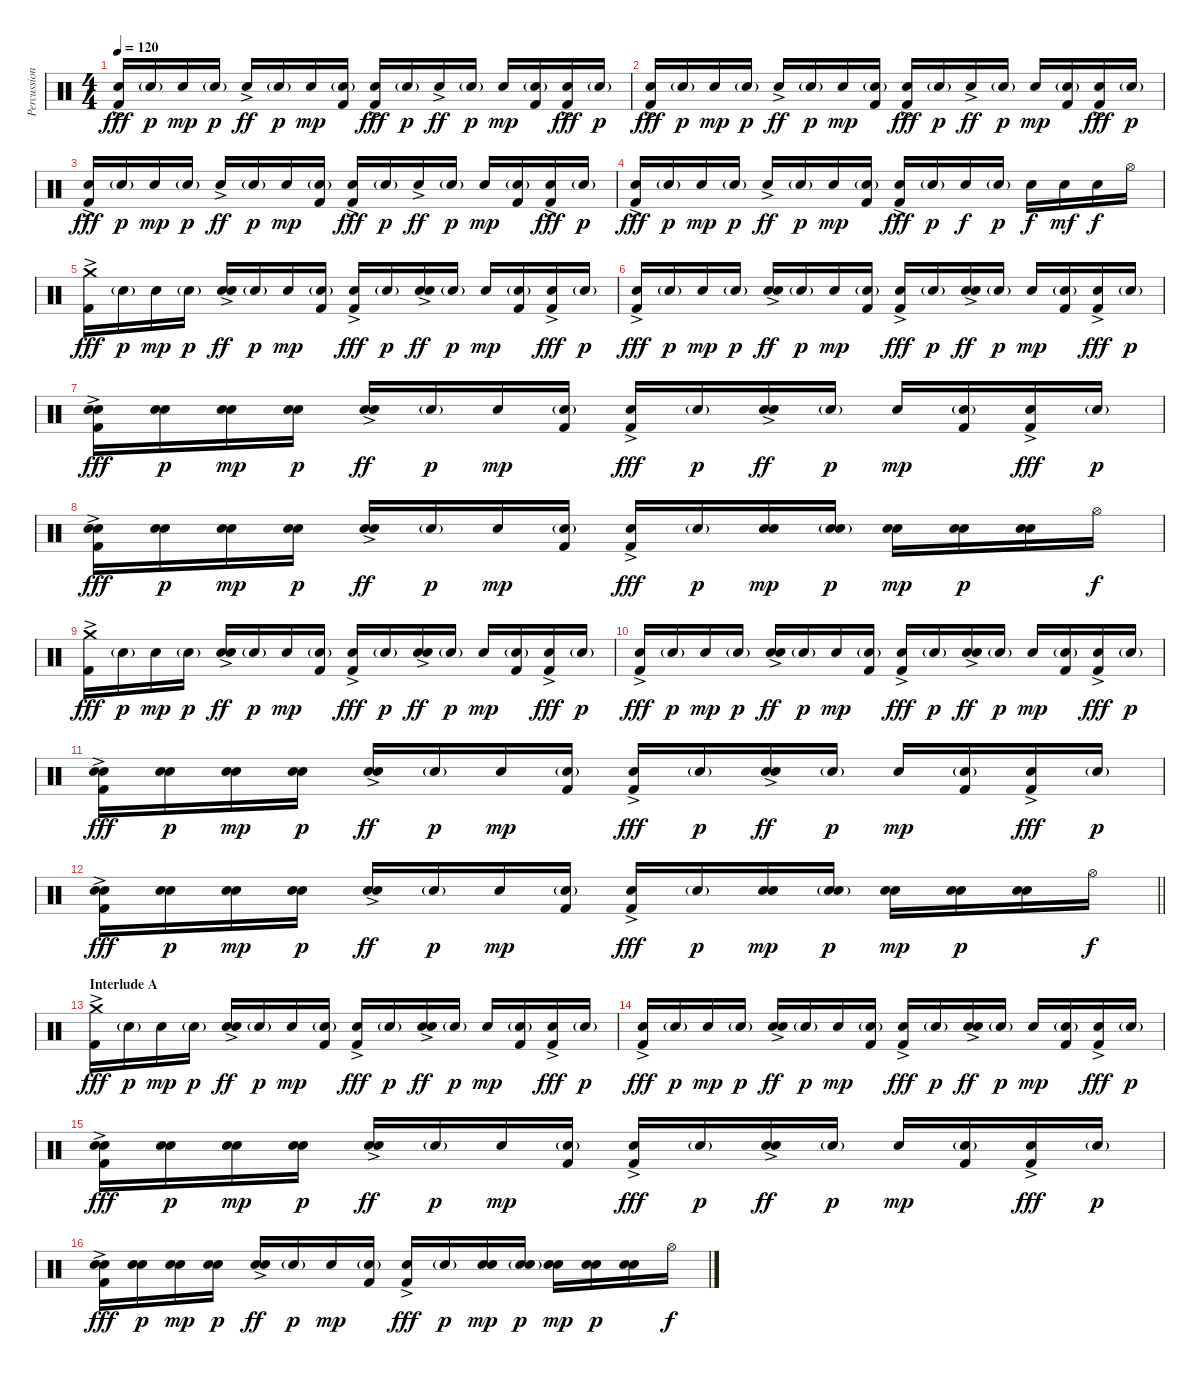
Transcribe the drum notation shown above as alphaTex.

\track ("Percussion" "Percussion") {instrument percussion}
\staff {score}
\articulation defaults
\ts (4 4)
\tempo 120
\clef neutral
\ks c
("Electric Snare (hit)" "Kick (hit) 2"{ac}).16{dy fff} "Electric Snare (hit)"{g}.16{dy p} "Electric Snare (hit)".16{dy mp} "Electric Snare (hit)"{g}.16{dy p} "Electric Snare (hit)"{ac}.16{dy ff} "Electric Snare (hit)"{g}.16{dy p} "Electric Snare (hit)".16{dy mp} ("Electric Snare (hit)"{g} "Kick (hit) 2").16 ("Electric Snare (hit)" "Kick (hit) 2"{ac}).16{dy fff} "Electric Snare (hit)"{g}.16{dy p} "Electric Snare (hit)"{ac}.16{dy ff} "Electric Snare (hit)"{g}.16{dy p} "Electric Snare (hit)".16{dy mp} ("Electric Snare (hit)"{g} "Kick (hit) 2").16 ("Electric Snare (hit)" "Kick (hit) 2"{ac}).16{dy fff} "Electric Snare (hit)"{g}.16{dy p} |
("Electric Snare (hit)" "Kick (hit) 2"{ac}).16{dy fff} "Electric Snare (hit)"{g}.16{dy p} "Electric Snare (hit)".16{dy mp} "Electric Snare (hit)"{g}.16{dy p} "Electric Snare (hit)"{ac}.16{dy ff} "Electric Snare (hit)"{g}.16{dy p} "Electric Snare (hit)".16{dy mp} ("Electric Snare (hit)"{g} "Kick (hit) 2").16 ("Electric Snare (hit)" "Kick (hit) 2"{ac}).16{dy fff} "Electric Snare (hit)"{g}.16{dy p} "Electric Snare (hit)"{ac}.16{dy ff} "Electric Snare (hit)"{g}.16{dy p} "Electric Snare (hit)".16{dy mp} ("Electric Snare (hit)"{g} "Kick (hit) 2").16 ("Electric Snare (hit)" "Kick (hit) 2"{ac}).16{dy fff} "Electric Snare (hit)"{g}.16{dy p} |
("Electric Snare (hit)" "Kick (hit) 2"{ac}).16{dy fff} "Electric Snare (hit)"{g}.16{dy p} "Electric Snare (hit)".16{dy mp} "Electric Snare (hit)"{g}.16{dy p} "Electric Snare (hit)"{ac}.16{dy ff} "Electric Snare (hit)"{g}.16{dy p} "Electric Snare (hit)".16{dy mp} ("Electric Snare (hit)"{g} "Kick (hit) 2").16 ("Electric Snare (hit)" "Kick (hit) 2"{ac}).16{dy fff} "Electric Snare (hit)"{g}.16{dy p} "Electric Snare (hit)"{ac}.16{dy ff} "Electric Snare (hit)"{g}.16{dy p} "Electric Snare (hit)".16{dy mp} ("Electric Snare (hit)"{g} "Kick (hit) 2").16 ("Electric Snare (hit)" "Kick (hit) 2"{ac}).16{dy fff} "Electric Snare (hit)"{g}.16{dy p} |
("Electric Snare (hit)" "Kick (hit) 2"{ac}).16{dy fff} "Electric Snare (hit)"{g}.16{dy p} "Electric Snare (hit)".16{dy mp} "Electric Snare (hit)"{g}.16{dy p} "Electric Snare (hit)"{ac}.16{dy ff} "Electric Snare (hit)"{g}.16{dy p} "Electric Snare (hit)".16{dy mp} ("Electric Snare (hit)"{g} "Kick (hit) 2").16 ("Electric Snare (hit)" "Kick (hit) 2"{ac}).16{dy fff} "Electric Snare (hit)"{g}.16{dy p} "Electric Snare (hit)".16{dy f} "Electric Snare (hit)"{g}.16{dy p} "Electric Snare (hit)".16{dy f} "Electric Snare (hit)".16{dy mf} "Electric Snare (hit)".16{dy f} "Hi-Hat (open)".16 |
("Crash medium (hit)" "Kick (hit) 2"{ac}).16{dy fff} "Electric Snare (hit)"{g}.16{dy p} "Electric Snare (hit)".16{dy mp} "Electric Snare (hit)"{g}.16{dy p} ("Electric Snare (hit)"{ac} "Snare (hit) 2").16{dy ff} "Electric Snare (hit)"{g}.16{dy p} "Electric Snare (hit)".16{dy mp} ("Electric Snare (hit)"{g} "Kick (hit) 2").16 ("Electric Snare (hit)" "Kick (hit) 2"{ac}).16{dy fff} "Electric Snare (hit)"{g}.16{dy p} ("Electric Snare (hit)"{ac} "Snare (hit) 2").16{dy ff} "Electric Snare (hit)"{g}.16{dy p} "Electric Snare (hit)".16{dy mp} ("Electric Snare (hit)"{g} "Kick (hit) 2").16 ("Electric Snare (hit)" "Kick (hit) 2"{ac}).16{dy fff} "Electric Snare (hit)"{g}.16{dy p} |
("Electric Snare (hit)" "Kick (hit) 2"{ac}).16{dy fff} "Electric Snare (hit)"{g}.16{dy p} "Electric Snare (hit)".16{dy mp} "Electric Snare (hit)"{g}.16{dy p} ("Electric Snare (hit)"{ac} "Snare (hit) 2").16{dy ff} "Electric Snare (hit)"{g}.16{dy p} "Electric Snare (hit)".16{dy mp} ("Electric Snare (hit)"{g} "Kick (hit) 2").16 ("Electric Snare (hit)" "Kick (hit) 2"{ac}).16{dy fff} "Electric Snare (hit)"{g}.16{dy p} ("Electric Snare (hit)"{ac} "Snare (hit) 2").16{dy ff} "Electric Snare (hit)"{g}.16{dy p} "Electric Snare (hit)".16{dy mp} ("Electric Snare (hit)"{g} "Kick (hit) 2").16 ("Electric Snare (hit)" "Kick (hit) 2"{ac}).16{dy fff} "Electric Snare (hit)"{g}.16{dy p} |
("Electric Snare (hit)" "Snare (hit) 2" "Kick (hit) 2"{ac}).16{dy fff} ("Electric Snare (hit)" "Snare (hit) 2").16{dy p} ("Electric Snare (hit)" "Snare (hit) 2").16{dy mp} ("Electric Snare (hit)" "Snare (hit) 2").16{dy p} ("Electric Snare (hit)"{ac} "Snare (hit) 2").16{dy ff} "Electric Snare (hit)"{g}.16{dy p} "Electric Snare (hit)".16{dy mp} ("Electric Snare (hit)"{g} "Kick (hit) 2").16 ("Electric Snare (hit)" "Kick (hit) 2"{ac}).16{dy fff} "Electric Snare (hit)"{g}.16{dy p} ("Electric Snare (hit)"{ac} "Snare (hit) 2").16{dy ff} "Electric Snare (hit)"{g}.16{dy p} "Electric Snare (hit)".16{dy mp} ("Electric Snare (hit)"{g} "Kick (hit) 2").16 ("Electric Snare (hit)" "Kick (hit) 2"{ac}).16{dy fff} "Electric Snare (hit)"{g}.16{dy p} |
("Electric Snare (hit)" "Snare (hit) 2" "Kick (hit) 2"{ac}).16{dy fff} ("Electric Snare (hit)" "Snare (hit) 2").16{dy p} ("Electric Snare (hit)" "Snare (hit) 2").16{dy mp} ("Electric Snare (hit)" "Snare (hit) 2").16{dy p} ("Electric Snare (hit)"{ac} "Snare (hit) 2").16{dy ff} "Electric Snare (hit)"{g}.16{dy p} "Electric Snare (hit)".16{dy mp} ("Electric Snare (hit)"{g} "Kick (hit) 2").16 ("Electric Snare (hit)" "Kick (hit) 2"{ac}).16{dy fff} "Electric Snare (hit)"{g}.16{dy p} ("Electric Snare (hit)" "Snare (hit) 2").16{dy mp} ("Electric Snare (hit)"{g} "Snare (hit) 2").16{dy p} ("Electric Snare (hit)" "Snare (hit) 2").16{dy mp} ("Electric Snare (hit)" "Snare (hit) 2").16{dy p} ("Electric Snare (hit)" "Snare (hit) 2").16 "Hi-Hat (open)".16{dy f} |
("Crash medium (hit)" "Kick (hit) 2"{ac}).16{dy fff} "Electric Snare (hit)"{g}.16{dy p} "Electric Snare (hit)".16{dy mp} "Electric Snare (hit)"{g}.16{dy p} ("Electric Snare (hit)"{ac} "Snare (hit) 2").16{dy ff} "Electric Snare (hit)"{g}.16{dy p} "Electric Snare (hit)".16{dy mp} ("Electric Snare (hit)"{g} "Kick (hit) 2").16 ("Electric Snare (hit)" "Kick (hit) 2"{ac}).16{dy fff} "Electric Snare (hit)"{g}.16{dy p} ("Electric Snare (hit)"{ac} "Snare (hit) 2").16{dy ff} "Electric Snare (hit)"{g}.16{dy p} "Electric Snare (hit)".16{dy mp} ("Electric Snare (hit)"{g} "Kick (hit) 2").16 ("Electric Snare (hit)" "Kick (hit) 2"{ac}).16{dy fff} "Electric Snare (hit)"{g}.16{dy p} |
("Electric Snare (hit)" "Kick (hit) 2"{ac}).16{dy fff} "Electric Snare (hit)"{g}.16{dy p} "Electric Snare (hit)".16{dy mp} "Electric Snare (hit)"{g}.16{dy p} ("Electric Snare (hit)"{ac} "Snare (hit) 2").16{dy ff} "Electric Snare (hit)"{g}.16{dy p} "Electric Snare (hit)".16{dy mp} ("Electric Snare (hit)"{g} "Kick (hit) 2").16 ("Electric Snare (hit)" "Kick (hit) 2"{ac}).16{dy fff} "Electric Snare (hit)"{g}.16{dy p} ("Electric Snare (hit)"{ac} "Snare (hit) 2").16{dy ff} "Electric Snare (hit)"{g}.16{dy p} "Electric Snare (hit)".16{dy mp} ("Electric Snare (hit)"{g} "Kick (hit) 2").16 ("Electric Snare (hit)" "Kick (hit) 2"{ac}).16{dy fff} "Electric Snare (hit)"{g}.16{dy p} |
("Electric Snare (hit)" "Snare (hit) 2" "Kick (hit) 2"{ac}).16{dy fff} ("Electric Snare (hit)" "Snare (hit) 2").16{dy p} ("Electric Snare (hit)" "Snare (hit) 2").16{dy mp} ("Electric Snare (hit)" "Snare (hit) 2").16{dy p} ("Electric Snare (hit)"{ac} "Snare (hit) 2").16{dy ff} "Electric Snare (hit)"{g}.16{dy p} "Electric Snare (hit)".16{dy mp} ("Electric Snare (hit)"{g} "Kick (hit) 2").16 ("Electric Snare (hit)" "Kick (hit) 2"{ac}).16{dy fff} "Electric Snare (hit)"{g}.16{dy p} ("Electric Snare (hit)"{ac} "Snare (hit) 2").16{dy ff} "Electric Snare (hit)"{g}.16{dy p} "Electric Snare (hit)".16{dy mp} ("Electric Snare (hit)"{g} "Kick (hit) 2").16 ("Electric Snare (hit)" "Kick (hit) 2"{ac}).16{dy fff} "Electric Snare (hit)"{g}.16{dy p} |
\barLineRight lightlight
("Electric Snare (hit)" "Snare (hit) 2" "Kick (hit) 2"{ac}).16{dy fff} ("Electric Snare (hit)" "Snare (hit) 2").16{dy p} ("Electric Snare (hit)" "Snare (hit) 2").16{dy mp} ("Electric Snare (hit)" "Snare (hit) 2").16{dy p} ("Electric Snare (hit)"{ac} "Snare (hit) 2").16{dy ff} "Electric Snare (hit)"{g}.16{dy p} "Electric Snare (hit)".16{dy mp} ("Electric Snare (hit)"{g} "Kick (hit) 2").16 ("Electric Snare (hit)" "Kick (hit) 2"{ac}).16{dy fff} "Electric Snare (hit)"{g}.16{dy p} ("Electric Snare (hit)" "Snare (hit) 2").16{dy mp} ("Electric Snare (hit)"{g} "Snare (hit) 2").16{dy p} ("Electric Snare (hit)" "Snare (hit) 2").16{dy mp} ("Electric Snare (hit)" "Snare (hit) 2").16{dy p} ("Electric Snare (hit)" "Snare (hit) 2").16 "Hi-Hat (open)".16{dy f} |
\section ("" "Interlude A")
("Crash medium (hit)" "Kick (hit) 2"{ac}).16{dy fff} "Electric Snare (hit)"{g}.16{dy p} "Electric Snare (hit)".16{dy mp} "Electric Snare (hit)"{g}.16{dy p} ("Electric Snare (hit)"{ac} "Snare (hit) 2").16{dy ff} "Electric Snare (hit)"{g}.16{dy p} "Electric Snare (hit)".16{dy mp} ("Electric Snare (hit)"{g} "Kick (hit) 2").16 ("Electric Snare (hit)" "Kick (hit) 2"{ac}).16{dy fff} "Electric Snare (hit)"{g}.16{dy p} ("Electric Snare (hit)"{ac} "Snare (hit) 2").16{dy ff} "Electric Snare (hit)"{g}.16{dy p} "Electric Snare (hit)".16{dy mp} ("Electric Snare (hit)"{g} "Kick (hit) 2").16 ("Electric Snare (hit)" "Kick (hit) 2"{ac}).16{dy fff} "Electric Snare (hit)"{g}.16{dy p} |
("Electric Snare (hit)" "Kick (hit) 2"{ac}).16{dy fff} "Electric Snare (hit)"{g}.16{dy p} "Electric Snare (hit)".16{dy mp} "Electric Snare (hit)"{g}.16{dy p} ("Electric Snare (hit)"{ac} "Snare (hit) 2").16{dy ff} "Electric Snare (hit)"{g}.16{dy p} "Electric Snare (hit)".16{dy mp} ("Electric Snare (hit)"{g} "Kick (hit) 2").16 ("Electric Snare (hit)" "Kick (hit) 2"{ac}).16{dy fff} "Electric Snare (hit)"{g}.16{dy p} ("Electric Snare (hit)"{ac} "Snare (hit) 2").16{dy ff} "Electric Snare (hit)"{g}.16{dy p} "Electric Snare (hit)".16{dy mp} ("Electric Snare (hit)"{g} "Kick (hit) 2").16 ("Electric Snare (hit)" "Kick (hit) 2"{ac}).16{dy fff} "Electric Snare (hit)"{g}.16{dy p} |
("Electric Snare (hit)" "Snare (hit) 2" "Kick (hit) 2"{ac}).16{dy fff} ("Electric Snare (hit)" "Snare (hit) 2").16{dy p} ("Electric Snare (hit)" "Snare (hit) 2").16{dy mp} ("Electric Snare (hit)" "Snare (hit) 2").16{dy p} ("Electric Snare (hit)"{ac} "Snare (hit) 2").16{dy ff} "Electric Snare (hit)"{g}.16{dy p} "Electric Snare (hit)".16{dy mp} ("Electric Snare (hit)"{g} "Kick (hit) 2").16 ("Electric Snare (hit)" "Kick (hit) 2"{ac}).16{dy fff} "Electric Snare (hit)"{g}.16{dy p} ("Electric Snare (hit)"{ac} "Snare (hit) 2").16{dy ff} "Electric Snare (hit)"{g}.16{dy p} "Electric Snare (hit)".16{dy mp} ("Electric Snare (hit)"{g} "Kick (hit) 2").16 ("Electric Snare (hit)" "Kick (hit) 2"{ac}).16{dy fff} "Electric Snare (hit)"{g}.16{dy p} |
("Electric Snare (hit)" "Snare (hit) 2" "Kick (hit) 2"{ac}).16{dy fff} ("Electric Snare (hit)" "Snare (hit) 2").16{dy p} ("Electric Snare (hit)" "Snare (hit) 2").16{dy mp} ("Electric Snare (hit)" "Snare (hit) 2").16{dy p} ("Electric Snare (hit)"{ac} "Snare (hit) 2").16{dy ff} "Electric Snare (hit)"{g}.16{dy p} "Electric Snare (hit)".16{dy mp} ("Electric Snare (hit)"{g} "Kick (hit) 2").16 ("Electric Snare (hit)" "Kick (hit) 2"{ac}).16{dy fff} "Electric Snare (hit)"{g}.16{dy p} ("Electric Snare (hit)" "Snare (hit) 2").16{dy mp} ("Electric Snare (hit)"{g} "Snare (hit) 2").16{dy p} ("Electric Snare (hit)" "Snare (hit) 2").16{dy mp} ("Electric Snare (hit)" "Snare (hit) 2").16{dy p} ("Electric Snare (hit)" "Snare (hit) 2").16 "Hi-Hat (open)".16{dy f}
